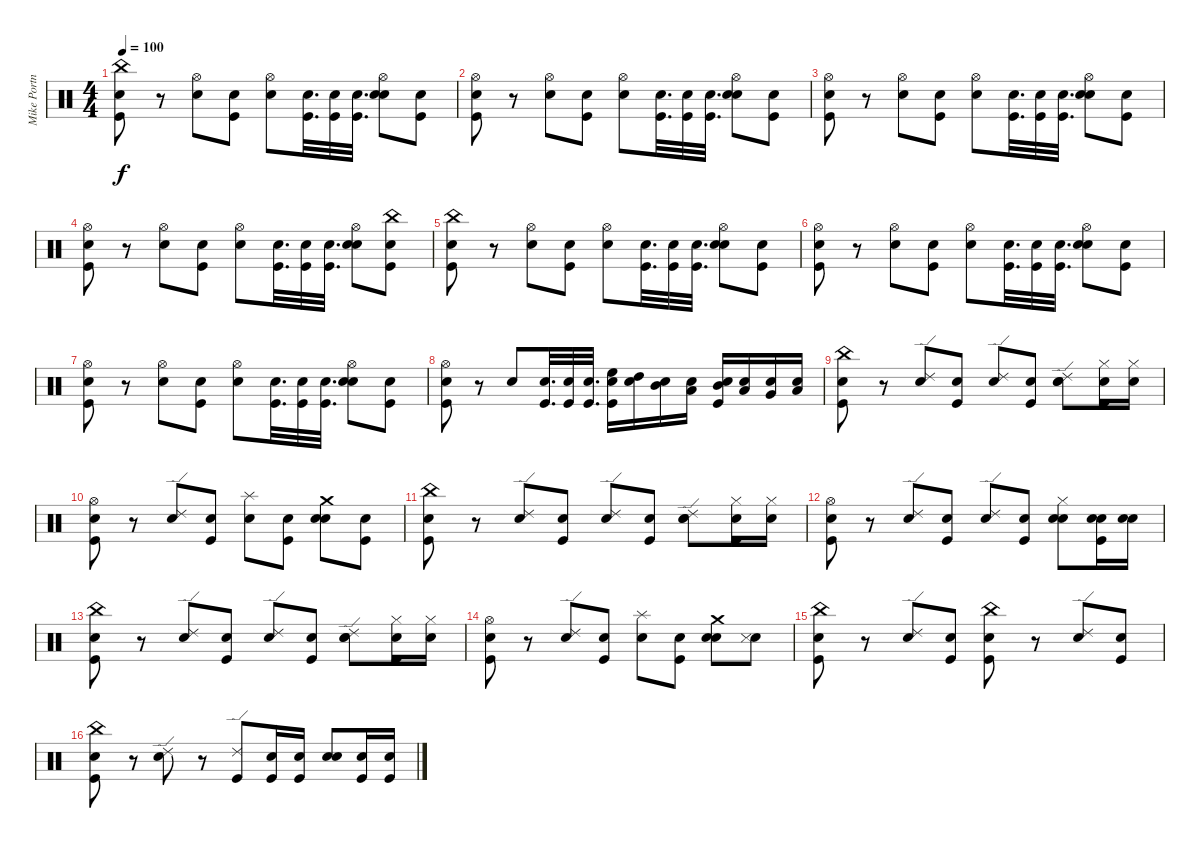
\track ("Mike Portnoy" "Mike Portn") {instrument percussion}
\staff {score}
\articulation defaults
\ts (4 4)
\tempo 100
\clef neutral
\ks c
("Snare (hit)" "Kick (hit)" "China (hit)").8{dy f} r.8 ("Snare (hit) 2" "Hi-Hat (open)").8 ("Snare (hit)" "Kick (hit)").8 ("Snare (hit)" "Hi-Hat (open)").8 ("Snare (hit)" "Kick (hit)").32{d} ("Snare (hit)" "Kick (hit)").32 ("Snare (hit)" "Kick (hit)").32{d} ("Snare (hit)" "Snare (hit) 2" "Hi-Hat (open)").8 ("Snare (hit)" "Kick (hit)").8 |
("Snare (hit)" "Kick (hit)" "Hi-Hat (open)").8 r.8 ("Snare (hit) 2" "Hi-Hat (open)").8 ("Snare (hit)" "Kick (hit)").8 ("Snare (hit)" "Hi-Hat (open)").8 ("Snare (hit)" "Kick (hit)").32{d} ("Snare (hit)" "Kick (hit)").32 ("Snare (hit)" "Kick (hit)").32{d} ("Snare (hit)" "Snare (hit) 2" "Hi-Hat (open)").8 ("Snare (hit)" "Kick (hit)").8 |
("Snare (hit)" "Kick (hit)" "Hi-Hat (open)").8 r.8 ("Snare (hit) 2" "Hi-Hat (open)").8 ("Snare (hit)" "Kick (hit)").8 ("Snare (hit)" "Hi-Hat (open)").8 ("Snare (hit)" "Kick (hit)").32{d} ("Snare (hit)" "Kick (hit)").32 ("Snare (hit)" "Kick (hit)").32{d} ("Snare (hit)" "Snare (hit) 2" "Hi-Hat (open)").8 ("Snare (hit)" "Kick (hit)").8 |
("Snare (hit)" "Kick (hit)" "Hi-Hat (open)").8 r.8 ("Snare (hit) 2" "Hi-Hat (open)").8 ("Snare (hit)" "Kick (hit)").8 ("Snare (hit)" "Hi-Hat (open)").8 ("Snare (hit)" "Kick (hit)").32{d} ("Snare (hit)" "Kick (hit)").32 ("Snare (hit)" "Kick (hit)").32{d} ("Snare (hit)" "Snare (hit) 2" "Hi-Hat (open)").8 ("Snare (hit)" "Kick (hit)" "China (hit)").8 |
("Snare (hit)" "Kick (hit)" "China (hit)").8 r.8 ("Snare (hit) 2" "Hi-Hat (open)").8 ("Snare (hit)" "Kick (hit)").8 ("Snare (hit)" "Hi-Hat (open)").8 ("Snare (hit)" "Kick (hit)").32{d} ("Snare (hit)" "Kick (hit)").32 ("Snare (hit)" "Kick (hit)").32{d} ("Snare (hit)" "Snare (hit) 2" "Hi-Hat (open)").8 ("Snare (hit)" "Kick (hit)").8 |
("Snare (hit)" "Kick (hit)" "Hi-Hat (open)").8 r.8 ("Snare (hit) 2" "Hi-Hat (open)").8 ("Snare (hit)" "Kick (hit)").8 ("Snare (hit)" "Hi-Hat (open)").8 ("Snare (hit)" "Kick (hit)").32{d} ("Snare (hit)" "Kick (hit)").32 ("Snare (hit)" "Kick (hit)").32{d} ("Snare (hit)" "Snare (hit) 2" "Hi-Hat (open)").8 ("Snare (hit)" "Kick (hit)").8 |
("Snare (hit)" "Kick (hit)" "Hi-Hat (open)").8 r.8 ("Snare (hit) 2" "Hi-Hat (open)").8 ("Snare (hit)" "Kick (hit)").8 ("Snare (hit)" "Hi-Hat (open)").8 ("Snare (hit)" "Kick (hit)").32{d} ("Snare (hit)" "Kick (hit)").32 ("Snare (hit)" "Kick (hit)").32{d} ("Snare (hit)" "Snare (hit) 2" "Hi-Hat (open)").8 ("Snare (hit)" "Kick (hit)").8 |
("Snare (hit)" "Kick (hit)" "Hi-Hat (open)").8 r.8 "Snare (hit) 2".8 ("Snare (hit)" "Kick (hit)").32{d} ("Snare (hit)" "Kick (hit)").32 ("Snare (hit)" "Kick (hit)").32{d} ("Snare (hit)" "Kick (hit)" "High Floor Tom (hit)").16 ("Snare (hit)" "High Tom (hit)").16 ("Snare (hit)" "Mid Tom (hit)").16 ("Snare (hit)" "Low Tom (hit)").16 ("Snare (hit)" "Kick (hit)" "Mid Tom (hit)").16 ("Snare (hit)" "Low Tom (hit)").16 ("Snare (hit)" "Very Low Tom (hit)").16 ("Snare (hit)" "Low Floor Tom (hit)").16 |
("Snare (hit)" "Kick (hit)" "China (hit)").8 r.8 ("Snare (hit) 2" "Ride (edge) 2").8 ("Snare (hit)" "Kick (hit)").8 ("Snare (hit)" "Ride (edge) 2").8 ("Snare (hit)" "Kick (hit)").8 ("Snare (hit)" "Snare (hit) 2" "Ride (edge) 2").8 ("Snare (hit)" "Kick (hit)" "Hi-Hat (closed)").16 ("Snare (hit)" "Hi-Hat (closed)").16 |
("Snare (hit)" "Kick (hit)" "Hi-Hat (open)").8 r.8 ("Snare (hit) 2" "Ride (edge) 2").8 ("Snare (hit)" "Kick (hit)").8 ("Snare (hit)" "Splash (hit)").8 ("Snare (hit)" "Kick (hit)").8 ("Snare (hit)" "Snare (hit) 2" "Crash medium (hit)").8 ("Snare (hit)" "Kick (hit)").8 |
("Snare (hit)" "Kick (hit)" "China (hit)").8 r.8 ("Snare (hit) 2" "Ride (edge) 2").8 ("Snare (hit)" "Kick (hit)").8 ("Snare (hit)" "Ride (edge) 2").8 ("Snare (hit)" "Kick (hit)").8 ("Snare (hit)" "Snare (hit) 2" "Ride (edge) 2").8 ("Snare (hit)" "Kick (hit)" "Hi-Hat (closed)").16 ("Snare (hit)" "Hi-Hat (closed)").16 |
("Snare (hit)" "Kick (hit)" "Hi-Hat (open)").8 r.8 ("Snare (hit) 2" "Ride (edge) 2").8 ("Snare (hit)" "Kick (hit)").8 ("Snare (hit)" "Ride (edge) 2").8 ("Snare (hit)" "Kick (hit)").8 ("Snare (hit)" "Snare (hit) 2" "Hi-Hat (closed)").8 ("Snare (hit)" "Kick (hit)" "Snare (hit) 2").16 ("Snare (hit)" "Snare (hit) 2").16 |
("Snare (hit)" "Kick (hit)" "China (hit)").8 r.8 ("Snare (hit) 2" "Ride (edge) 2").8 ("Snare (hit)" "Kick (hit)").8 ("Snare (hit)" "Ride (edge) 2").8 ("Snare (hit)" "Kick (hit)").8 ("Snare (hit)" "Snare (hit) 2" "Ride (edge) 2").8 ("Snare (hit)" "Kick (hit)" "Hi-Hat (closed)").16 ("Snare (hit)" "Hi-Hat (closed)").16 |
("Snare (hit)" "Kick (hit)" "Hi-Hat (open)").8 r.8 ("Snare (hit) 2" "Ride (edge) 2").8 ("Snare (hit)" "Kick (hit)").8 ("Snare (hit)" "Splash (hit)").8 ("Snare (hit)" "Kick (hit)").8 ("Snare (hit)" "Snare (hit) 2" "Crash medium (hit)").8 ("Snare (hit)" "Metronome (hit)").8 |
("Snare (hit)" "Kick (hit)" "China (hit)").8 r.8 ("Snare (hit) 2" "Ride (edge) 2").8 ("Snare (hit)" "Kick (hit)").8 ("Snare (hit)" "Kick (hit)" "China (hit)").8 r.8 ("Snare (hit) 2" "Ride (edge) 2").8 ("Snare (hit)" "Kick (hit)").8 |
("Snare (hit)" "Kick (hit)" "China (hit)").8 r.8 ("Snare (hit) 2" "Ride (edge) 2").8 r.8 ("Kick (hit)" "Ride (edge) 2").8 ("Snare (hit)" "Kick (hit)").16 ("Snare (hit)" "Kick (hit)").16 ("Snare (hit)" "Snare (hit) 2").8 ("Snare (hit)" "Kick (hit)").16 ("Snare (hit)" "Kick (hit)").16
